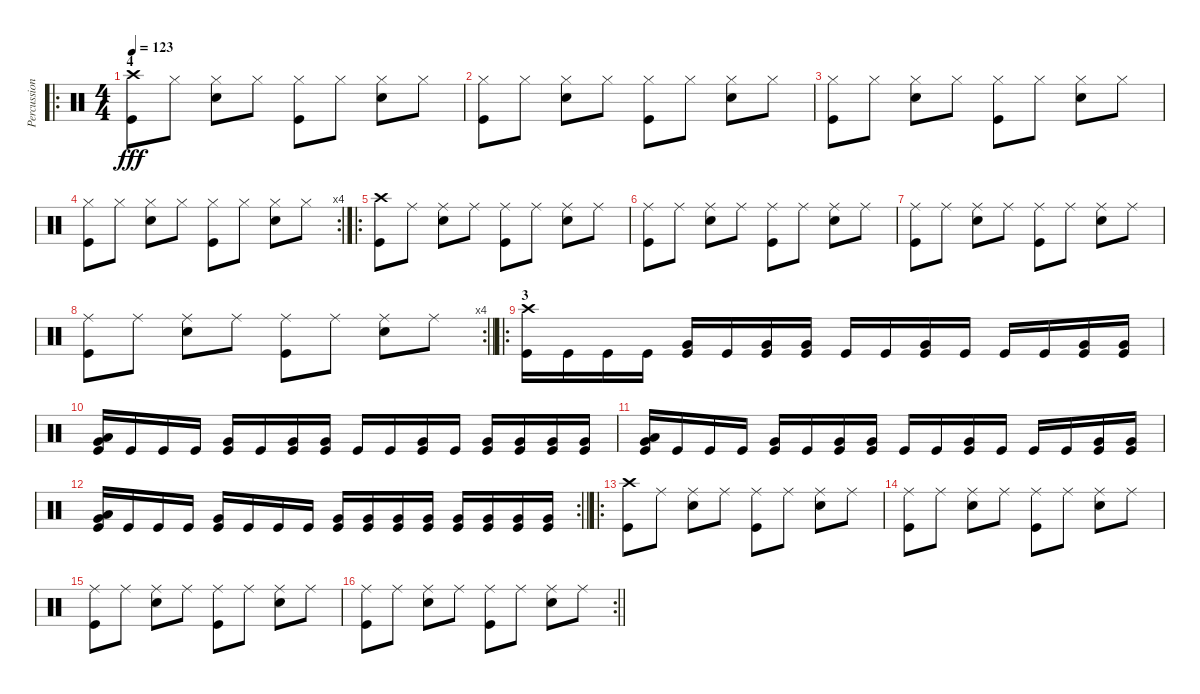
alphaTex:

\track ("Percussion" "Percussion") {instrument percussion}
\staff {score}
\articulation defaults
\ro
\ts (4 4)
\section ("" "4")
\tempo 123
\clef neutral
\ks c
("Crash high (hit)" "Kick (hit)").8{dy fff} "Hi-Hat (closed)".8 ("Hi-Hat (closed)" "Snare (hit) 2").8 "Hi-Hat (closed)".8 ("Hi-Hat (closed)" "Kick (hit)").8 "Hi-Hat (closed)".8 ("Hi-Hat (closed)" "Snare (hit) 2").8 "Hi-Hat (closed)".8 |
("Hi-Hat (closed)" "Kick (hit)").8 "Hi-Hat (closed)".8 ("Hi-Hat (closed)" "Snare (hit) 2").8 "Hi-Hat (closed)".8 ("Hi-Hat (closed)" "Kick (hit)").8 "Hi-Hat (closed)".8 ("Hi-Hat (closed)" "Snare (hit) 2").8 "Hi-Hat (closed)".8 |
("Hi-Hat (closed)" "Kick (hit)").8 "Hi-Hat (closed)".8 ("Hi-Hat (closed)" "Snare (hit) 2").8 "Hi-Hat (closed)".8 ("Hi-Hat (closed)" "Kick (hit)").8 "Hi-Hat (closed)".8 ("Hi-Hat (closed)" "Snare (hit) 2").8 "Hi-Hat (closed)".8 |
\rc 4
("Hi-Hat (closed)" "Kick (hit)").8 "Hi-Hat (closed)".8 ("Hi-Hat (closed)" "Snare (hit) 2").8 "Hi-Hat (closed)".8 ("Hi-Hat (closed)" "Kick (hit)").8 "Hi-Hat (closed)".8 ("Hi-Hat (closed)" "Snare (hit) 2").8 "Hi-Hat (closed)".8 |
\ro
("Crash high (hit)" "Kick (hit)").8 "Ride (middle)".8 ("Ride (middle)" "Snare (hit) 2").8 "Ride (middle)".8 ("Ride (middle)" "Kick (hit)").8 "Ride (middle)".8 ("Ride (middle)" "Snare (hit) 2").8 "Ride (middle)".8 |
("Ride (middle)" "Kick (hit)").8 "Ride (middle)".8 ("Ride (middle)" "Snare (hit) 2").8 "Ride (middle)".8 ("Ride (middle)" "Kick (hit)").8 "Ride (middle)".8 ("Ride (middle)" "Snare (hit) 2").8 "Ride (middle)".8 |
("Ride (middle)" "Kick (hit)").8 "Ride (middle)".8 ("Ride (middle)" "Snare (hit) 2").8 "Ride (middle)".8 ("Ride (middle)" "Kick (hit)").8 "Ride (middle)".8 ("Ride (middle)" "Snare (hit) 2").8 "Ride (middle)".8 |
\rc 4
\barLineRight lightlight
("Ride (middle)" "Kick (hit)").8 "Ride (middle)".8 ("Ride (middle)" "Snare (hit) 2").8 "Ride (middle)".8 ("Ride (middle)" "Kick (hit)").8 "Ride (middle)".8 ("Ride (middle)" "Snare (hit) 2").8 "Ride (middle)".8 |
\ro
\section ("" "3")
("Crash high (hit)" "Kick (hit)").16 "Kick (hit)".16 "Kick (hit)".16 "Kick (hit)".16 ("Very Low Tom (hit)" "Kick (hit)").16 "Kick (hit)".16 ("Very Low Tom (hit)" "Kick (hit)").16 ("Very Low Tom (hit)" "Kick (hit)").16 "Kick (hit)".16 "Kick (hit)".16 ("Very Low Tom (hit)" "Kick (hit)").16 "Kick (hit)".16 "Kick (hit)".16 "Kick (hit)".16 ("Very Low Tom (hit)" "Kick (hit)").16 ("Very Low Tom (hit)" "Kick (hit)").16 |
("Very Low Tom (hit)" "Low Tom (hit)" "Kick (hit)").16{bu 240} "Kick (hit)".16 "Kick (hit)".16 "Kick (hit)".16 ("Very Low Tom (hit)" "Kick (hit)").16 "Kick (hit)".16 ("Very Low Tom (hit)" "Kick (hit)").16 ("Very Low Tom (hit)" "Kick (hit)").16 "Kick (hit)".16 "Kick (hit)".16 ("Very Low Tom (hit)" "Kick (hit)").16 "Kick (hit)".16 ("Very Low Tom (hit)" "Kick (hit)").16 ("Very Low Tom (hit)" "Kick (hit)").16 ("Very Low Tom (hit)" "Kick (hit)").16 ("Very Low Tom (hit)" "Kick (hit)").16 |
("Very Low Tom (hit)" "Low Tom (hit)" "Kick (hit)").16{bu 240} "Kick (hit)".16 "Kick (hit)".16 "Kick (hit)".16 ("Very Low Tom (hit)" "Kick (hit)").16 "Kick (hit)".16 ("Very Low Tom (hit)" "Kick (hit)").16 ("Very Low Tom (hit)" "Kick (hit)").16 "Kick (hit)".16 "Kick (hit)".16 ("Very Low Tom (hit)" "Kick (hit)").16 "Kick (hit)".16 "Kick (hit)".16 "Kick (hit)".16 ("Very Low Tom (hit)" "Kick (hit)").16 ("Very Low Tom (hit)" "Kick (hit)").16 |
\rc 2
\barLineRight lightlight
("Very Low Tom (hit)" "Low Tom (hit)" "Kick (hit)").16{bu 240} "Kick (hit)".16 "Kick (hit)".16 "Kick (hit)".16 ("Very Low Tom (hit)" "Kick (hit)").16 "Kick (hit)".16 "Kick (hit)".16 "Kick (hit)".16 ("Very Low Tom (hit)" "Kick (hit)").16 ("Very Low Tom (hit)" "Kick (hit)").16 ("Very Low Tom (hit)" "Kick (hit)").16 ("Very Low Tom (hit)" "Kick (hit)").16 ("Very Low Tom (hit)" "Kick (hit)").16 ("Very Low Tom (hit)" "Kick (hit)").16 ("Very Low Tom (hit)" "Kick (hit)").16 ("Very Low Tom (hit)" "Kick (hit)").16 |
\ro
\section ("" "")
("Crash high (hit)" "Kick (hit)").8 "Ride (middle)".8 ("Ride (middle)" "Snare (hit) 2").8 "Ride (middle)".8 ("Ride (middle)" "Kick (hit)").8 "Ride (middle)".8 ("Ride (middle)" "Snare (hit) 2").8 "Ride (middle)".8 |
("Ride (middle)" "Kick (hit)").8 "Ride (middle)".8 ("Ride (middle)" "Snare (hit) 2").8 "Ride (middle)".8 ("Ride (middle)" "Kick (hit)").8 "Ride (middle)".8 ("Ride (middle)" "Snare (hit) 2").8 "Ride (middle)".8 |
("Ride (middle)" "Kick (hit)").8 "Ride (middle)".8 ("Ride (middle)" "Snare (hit) 2").8 "Ride (middle)".8 ("Ride (middle)" "Kick (hit)").8 "Ride (middle)".8 ("Ride (middle)" "Snare (hit) 2").8 "Ride (middle)".8 |
\rc 2
\barLineRight lightlight
("Ride (middle)" "Kick (hit)").8 "Ride (middle)".8 ("Ride (middle)" "Snare (hit) 2").8 "Ride (middle)".8 ("Ride (middle)" "Kick (hit)").8 "Ride (middle)".8 ("Ride (middle)" "Snare (hit) 2").8 "Ride (middle)".8
